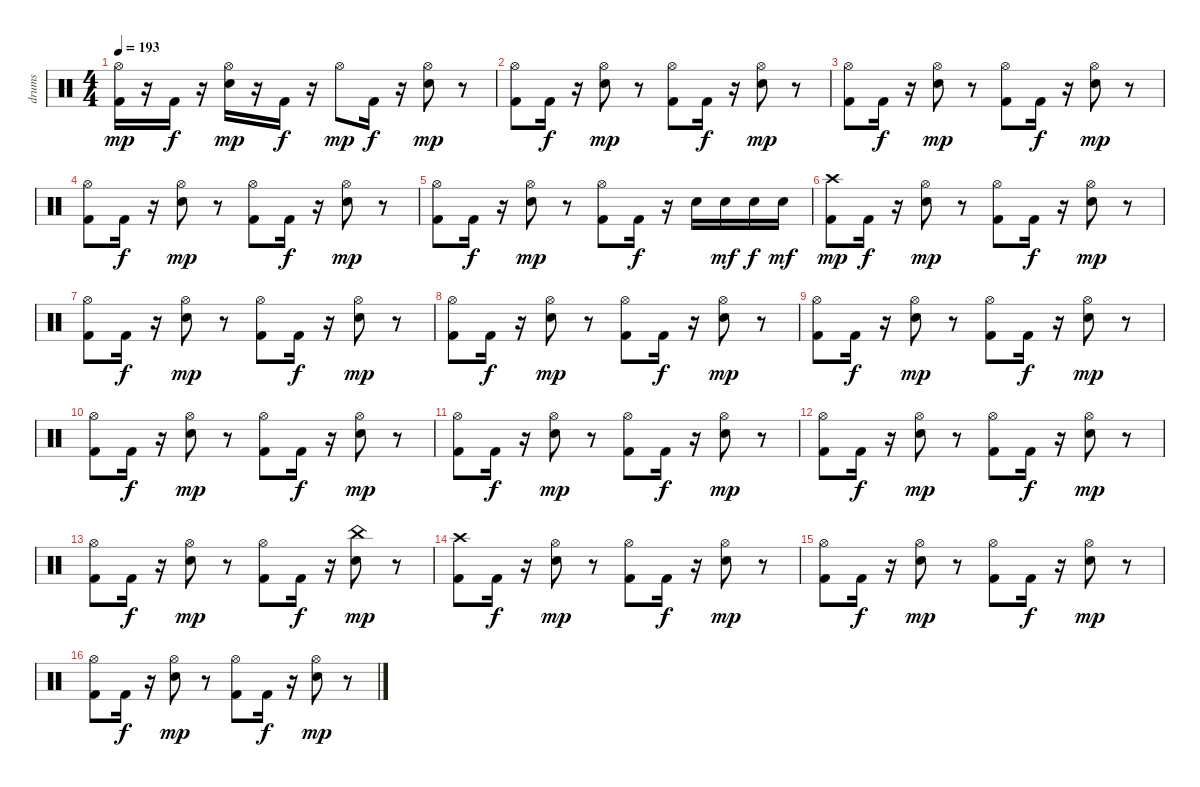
\track ("drums" "drums") {instrument percussion}
\staff {score}
\articulation defaults
\ts (4 4)
\tempo 193
\clef neutral
\ks c
("Kick (hit) 2" "Hi-Hat (open)").16{dy mp} r.16 "Kick (hit) 2".16{dy f} r.16 ("Snare (hit) 2" "Hi-Hat (open)").16{dy mp} r.16 "Kick (hit) 2".16{dy f} r.16 "Hi-Hat (open)".8{dy mp} "Kick (hit) 2".16{dy f} r.16 ("Snare (hit) 2" "Hi-Hat (open)").8{dy mp} r.8 |
("Kick (hit) 2" "Hi-Hat (open)").8 "Kick (hit) 2".16{dy f} r.16 ("Snare (hit) 2" "Hi-Hat (open)").8{dy mp} r.8 ("Kick (hit) 2" "Hi-Hat (open)").8 "Kick (hit) 2".16{dy f} r.16 ("Snare (hit) 2" "Hi-Hat (open)").8{dy mp} r.8 |
("Kick (hit) 2" "Hi-Hat (open)").8 "Kick (hit) 2".16{dy f} r.16 ("Snare (hit) 2" "Hi-Hat (open)").8{dy mp} r.8 ("Kick (hit) 2" "Hi-Hat (open)").8 "Kick (hit) 2".16{dy f} r.16 ("Snare (hit) 2" "Hi-Hat (open)").8{dy mp} r.8 |
("Kick (hit) 2" "Hi-Hat (open)").8 "Kick (hit) 2".16{dy f} r.16 ("Snare (hit) 2" "Hi-Hat (open)").8{dy mp} r.8 ("Kick (hit) 2" "Hi-Hat (open)").8 "Kick (hit) 2".16{dy f} r.16 ("Snare (hit) 2" "Hi-Hat (open)").8{dy mp} r.8 |
("Kick (hit) 2" "Hi-Hat (open)").8 "Kick (hit) 2".16{dy f} r.16 ("Snare (hit) 2" "Hi-Hat (open)").8{dy mp} r.8 ("Kick (hit) 2" "Hi-Hat (open)").8 "Kick (hit) 2".16{dy f} r.16 "Snare (hit) 2".16 "Snare (hit) 2".16{dy mf} "Snare (hit) 2".16{dy f} "Snare (hit) 2".16{dy mf} |
("Kick (hit) 2" "Crash high (hit)").8{dy mp} "Kick (hit) 2".16{dy f} r.16 ("Snare (hit) 2" "Hi-Hat (open)").8{dy mp} r.8 ("Kick (hit) 2" "Hi-Hat (open)").8 "Kick (hit) 2".16{dy f} r.16 ("Snare (hit) 2" "Hi-Hat (open)").8{dy mp} r.8 |
("Kick (hit) 2" "Hi-Hat (open)").8 "Kick (hit) 2".16{dy f} r.16 ("Snare (hit) 2" "Hi-Hat (open)").8{dy mp} r.8 ("Kick (hit) 2" "Hi-Hat (open)").8 "Kick (hit) 2".16{dy f} r.16 ("Snare (hit) 2" "Hi-Hat (open)").8{dy mp} r.8 |
("Kick (hit) 2" "Hi-Hat (open)").8 "Kick (hit) 2".16{dy f} r.16 ("Snare (hit) 2" "Hi-Hat (open)").8{dy mp} r.8 ("Kick (hit) 2" "Hi-Hat (open)").8 "Kick (hit) 2".16{dy f} r.16 ("Snare (hit) 2" "Hi-Hat (open)").8{dy mp} r.8 |
("Kick (hit) 2" "Hi-Hat (open)").8 "Kick (hit) 2".16{dy f} r.16 ("Snare (hit) 2" "Hi-Hat (open)").8{dy mp} r.8 ("Kick (hit) 2" "Hi-Hat (open)").8 "Kick (hit) 2".16{dy f} r.16 ("Snare (hit) 2" "Hi-Hat (open)").8{dy mp} r.8 |
("Kick (hit) 2" "Hi-Hat (open)").8 "Kick (hit) 2".16{dy f} r.16 ("Snare (hit) 2" "Hi-Hat (open)").8{dy mp} r.8 ("Kick (hit) 2" "Hi-Hat (open)").8 "Kick (hit) 2".16{dy f} r.16 ("Snare (hit) 2" "Hi-Hat (open)").8{dy mp} r.8 |
("Kick (hit) 2" "Hi-Hat (open)").8 "Kick (hit) 2".16{dy f} r.16 ("Snare (hit) 2" "Hi-Hat (open)").8{dy mp} r.8 ("Kick (hit) 2" "Hi-Hat (open)").8 "Kick (hit) 2".16{dy f} r.16 ("Snare (hit) 2" "Hi-Hat (open)").8{dy mp} r.8 |
("Kick (hit) 2" "Hi-Hat (open)").8 "Kick (hit) 2".16{dy f} r.16 ("Snare (hit) 2" "Hi-Hat (open)").8{dy mp} r.8 ("Kick (hit) 2" "Hi-Hat (open)").8 "Kick (hit) 2".16{dy f} r.16 ("Snare (hit) 2" "Hi-Hat (open)").8{dy mp} r.8 |
("Kick (hit) 2" "Hi-Hat (open)").8 "Kick (hit) 2".16{dy f} r.16 ("Snare (hit) 2" "Hi-Hat (open)").8{dy mp} r.8 ("Kick (hit) 2" "Hi-Hat (open)").8 "Kick (hit) 2".16{dy f} r.16 ("Snare (hit) 2" "China (hit)").8{dy mp} r.8 |
("Kick (hit) 2" "Crash high (hit)").8 "Kick (hit) 2".16{dy f} r.16 ("Snare (hit) 2" "Hi-Hat (open)").8{dy mp} r.8 ("Kick (hit) 2" "Hi-Hat (open)").8 "Kick (hit) 2".16{dy f} r.16 ("Snare (hit) 2" "Hi-Hat (open)").8{dy mp} r.8 |
("Kick (hit) 2" "Hi-Hat (open)").8 "Kick (hit) 2".16{dy f} r.16 ("Snare (hit) 2" "Hi-Hat (open)").8{dy mp} r.8 ("Kick (hit) 2" "Hi-Hat (open)").8 "Kick (hit) 2".16{dy f} r.16 ("Snare (hit) 2" "Hi-Hat (open)").8{dy mp} r.8 |
("Kick (hit) 2" "Hi-Hat (open)").8 "Kick (hit) 2".16{dy f} r.16 ("Snare (hit) 2" "Hi-Hat (open)").8{dy mp} r.8 ("Kick (hit) 2" "Hi-Hat (open)").8 "Kick (hit) 2".16{dy f} r.16 ("Snare (hit) 2" "Hi-Hat (open)").8{dy mp} r.8
